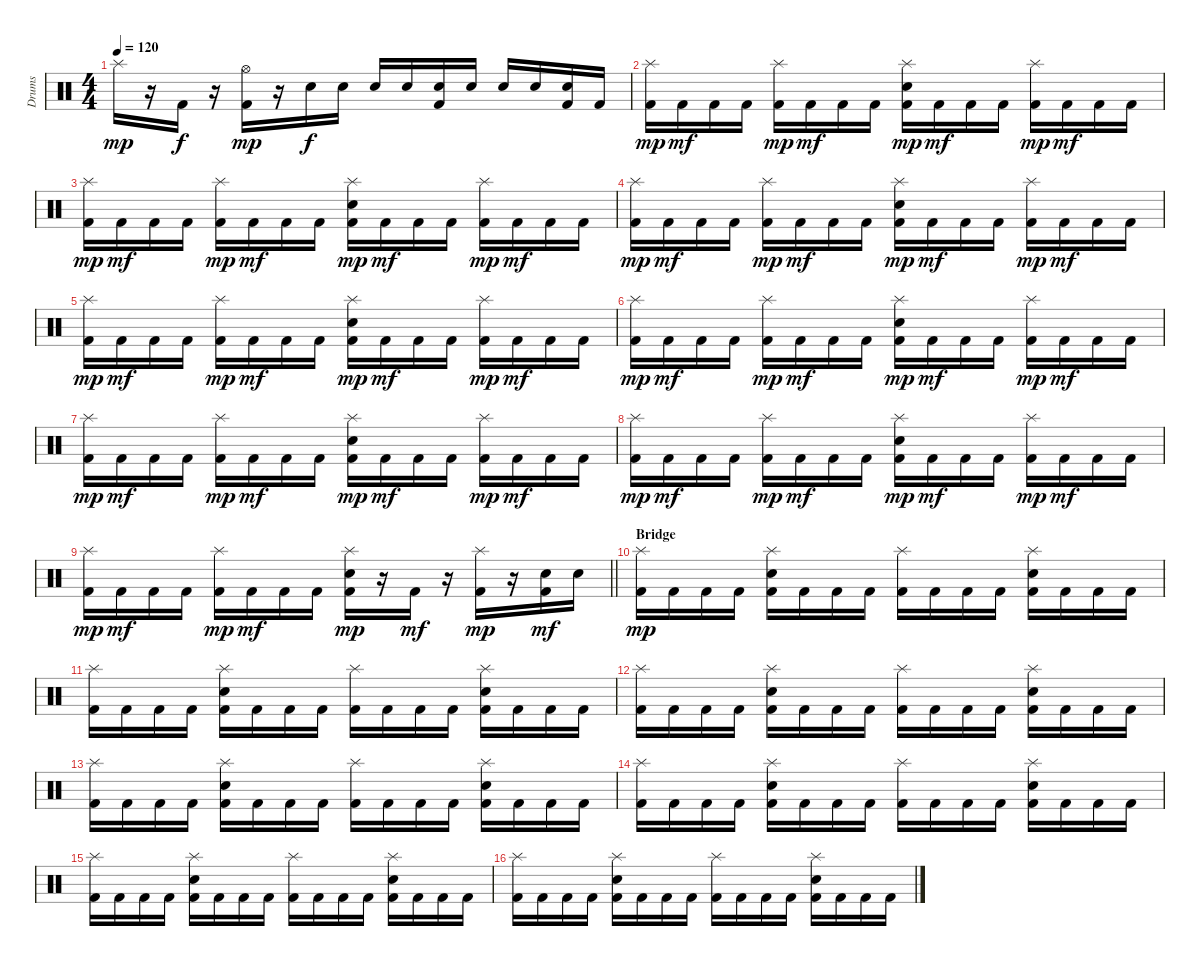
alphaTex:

\track ("Drums" "Drums") {instrument percussion}
\staff {score}
\articulation defaults
\ts (4 4)
\tempo 120
\clef neutral
\ks c "Splash (hit)".16{dy mp}
r.16 "Kick (hit) 2".16{dy f} r.16 ("Kick (hit) 2" "Hi-Hat (open)").16{dy mp} r.16 "Snare (hit) 2".16{dy f} "Snare (hit) 2".16 "Snare (hit) 2".16 "Snare (hit) 2".16 ("Kick (hit) 2" "Snare (hit) 2").16 "Snare (hit) 2".16 "Snare (hit) 2".16 "Snare (hit) 2".16 ("Kick (hit) 2" "Snare (hit) 2").16 "Kick (hit) 2".16 |
("Kick (hit) 2" "Splash (hit)").16{dy mp} "Kick (hit) 2".16{dy mf} "Kick (hit) 2".16 "Kick (hit) 2".16 ("Kick (hit) 2" "Splash (hit)").16{dy mp} "Kick (hit) 2".16{dy mf} "Kick (hit) 2".16 "Kick (hit) 2".16 ("Kick (hit) 2" "Splash (hit)" "Snare (hit) 2").16{dy mp} "Kick (hit) 2".16{dy mf} "Kick (hit) 2".16 "Kick (hit) 2".16 ("Kick (hit) 2" "Splash (hit)").16{dy mp} "Kick (hit) 2".16{dy mf} "Kick (hit) 2".16 "Kick (hit) 2".16 |
("Kick (hit) 2" "Splash (hit)").16{dy mp} "Kick (hit) 2".16{dy mf} "Kick (hit) 2".16 "Kick (hit) 2".16 ("Kick (hit) 2" "Splash (hit)").16{dy mp} "Kick (hit) 2".16{dy mf} "Kick (hit) 2".16 "Kick (hit) 2".16 ("Kick (hit) 2" "Splash (hit)" "Snare (hit) 2").16{dy mp} "Kick (hit) 2".16{dy mf} "Kick (hit) 2".16 "Kick (hit) 2".16 ("Kick (hit) 2" "Splash (hit)").16{dy mp} "Kick (hit) 2".16{dy mf} "Kick (hit) 2".16 "Kick (hit) 2".16 |
("Kick (hit) 2" "Splash (hit)").16{dy mp} "Kick (hit) 2".16{dy mf} "Kick (hit) 2".16 "Kick (hit) 2".16 ("Kick (hit) 2" "Splash (hit)").16{dy mp} "Kick (hit) 2".16{dy mf} "Kick (hit) 2".16 "Kick (hit) 2".16 ("Kick (hit) 2" "Splash (hit)" "Snare (hit) 2").16{dy mp} "Kick (hit) 2".16{dy mf} "Kick (hit) 2".16 "Kick (hit) 2".16 ("Kick (hit) 2" "Splash (hit)").16{dy mp} "Kick (hit) 2".16{dy mf} "Kick (hit) 2".16 "Kick (hit) 2".16 |
("Kick (hit) 2" "Splash (hit)").16{dy mp} "Kick (hit) 2".16{dy mf} "Kick (hit) 2".16 "Kick (hit) 2".16 ("Kick (hit) 2" "Splash (hit)").16{dy mp} "Kick (hit) 2".16{dy mf} "Kick (hit) 2".16 "Kick (hit) 2".16 ("Kick (hit) 2" "Splash (hit)" "Snare (hit) 2").16{dy mp} "Kick (hit) 2".16{dy mf} "Kick (hit) 2".16 "Kick (hit) 2".16 ("Kick (hit) 2" "Splash (hit)").16{dy mp} "Kick (hit) 2".16{dy mf} "Kick (hit) 2".16 "Kick (hit) 2".16 |
("Kick (hit) 2" "Splash (hit)").16{dy mp} "Kick (hit) 2".16{dy mf} "Kick (hit) 2".16 "Kick (hit) 2".16 ("Kick (hit) 2" "Splash (hit)").16{dy mp} "Kick (hit) 2".16{dy mf} "Kick (hit) 2".16 "Kick (hit) 2".16 ("Kick (hit) 2" "Splash (hit)" "Snare (hit) 2").16{dy mp} "Kick (hit) 2".16{dy mf} "Kick (hit) 2".16 "Kick (hit) 2".16 ("Kick (hit) 2" "Splash (hit)").16{dy mp} "Kick (hit) 2".16{dy mf} "Kick (hit) 2".16 "Kick (hit) 2".16 |
("Kick (hit) 2" "Splash (hit)").16{dy mp} "Kick (hit) 2".16{dy mf} "Kick (hit) 2".16 "Kick (hit) 2".16 ("Kick (hit) 2" "Splash (hit)").16{dy mp} "Kick (hit) 2".16{dy mf} "Kick (hit) 2".16 "Kick (hit) 2".16 ("Kick (hit) 2" "Splash (hit)" "Snare (hit) 2").16{dy mp} "Kick (hit) 2".16{dy mf} "Kick (hit) 2".16 "Kick (hit) 2".16 ("Kick (hit) 2" "Splash (hit)").16{dy mp} "Kick (hit) 2".16{dy mf} "Kick (hit) 2".16 "Kick (hit) 2".16 |
("Kick (hit) 2" "Splash (hit)").16{dy mp} "Kick (hit) 2".16{dy mf} "Kick (hit) 2".16 "Kick (hit) 2".16 ("Kick (hit) 2" "Splash (hit)").16{dy mp} "Kick (hit) 2".16{dy mf} "Kick (hit) 2".16 "Kick (hit) 2".16 ("Kick (hit) 2" "Splash (hit)" "Snare (hit) 2").16{dy mp} "Kick (hit) 2".16{dy mf} "Kick (hit) 2".16 "Kick (hit) 2".16 ("Kick (hit) 2" "Splash (hit)").16{dy mp} "Kick (hit) 2".16{dy mf} "Kick (hit) 2".16 "Kick (hit) 2".16 |
\barLineRight lightlight
("Kick (hit) 2" "Splash (hit)").16{dy mp} "Kick (hit) 2".16{dy mf} "Kick (hit) 2".16 "Kick (hit) 2".16 ("Kick (hit) 2" "Splash (hit)").16{dy mp} "Kick (hit) 2".16{dy mf} "Kick (hit) 2".16 "Kick (hit) 2".16 ("Kick (hit) 2" "Splash (hit)" "Snare (hit) 2").16{dy mp} r.16 "Kick (hit) 2".16{dy mf} r.16 ("Kick (hit) 2" "Splash (hit)").16{dy mp} r.16 ("Kick (hit) 2" "Snare (hit) 2").16{dy mf} "Snare (hit) 2".16 |
\section ("" "Bridge")
("Kick (hit) 2" "Splash (hit)").16{dy mp} "Kick (hit) 2".16 "Kick (hit) 2".16 "Kick (hit) 2".16 ("Kick (hit) 2" "Splash (hit)" "Snare (hit) 2").16 "Kick (hit) 2".16 "Kick (hit) 2".16 "Kick (hit) 2".16 ("Kick (hit) 2" "Splash (hit)").16 "Kick (hit) 2".16 "Kick (hit) 2".16 "Kick (hit) 2".16 ("Kick (hit) 2" "Splash (hit)" "Snare (hit) 2").16 "Kick (hit) 2".16 "Kick (hit) 2".16 "Kick (hit) 2".16 |
("Kick (hit) 2" "Splash (hit)").16 "Kick (hit) 2".16 "Kick (hit) 2".16 "Kick (hit) 2".16 ("Kick (hit) 2" "Splash (hit)" "Snare (hit) 2").16 "Kick (hit) 2".16 "Kick (hit) 2".16 "Kick (hit) 2".16 ("Kick (hit) 2" "Splash (hit)").16 "Kick (hit) 2".16 "Kick (hit) 2".16 "Kick (hit) 2".16 ("Kick (hit) 2" "Splash (hit)" "Snare (hit) 2").16 "Kick (hit) 2".16 "Kick (hit) 2".16 "Kick (hit) 2".16 |
("Kick (hit) 2" "Splash (hit)").16 "Kick (hit) 2".16 "Kick (hit) 2".16 "Kick (hit) 2".16 ("Kick (hit) 2" "Splash (hit)" "Snare (hit) 2").16 "Kick (hit) 2".16 "Kick (hit) 2".16 "Kick (hit) 2".16 ("Kick (hit) 2" "Splash (hit)").16 "Kick (hit) 2".16 "Kick (hit) 2".16 "Kick (hit) 2".16 ("Kick (hit) 2" "Splash (hit)" "Snare (hit) 2").16 "Kick (hit) 2".16 "Kick (hit) 2".16 "Kick (hit) 2".16 |
("Kick (hit) 2" "Splash (hit)").16 "Kick (hit) 2".16 "Kick (hit) 2".16 "Kick (hit) 2".16 ("Kick (hit) 2" "Splash (hit)" "Snare (hit) 2").16 "Kick (hit) 2".16 "Kick (hit) 2".16 "Kick (hit) 2".16 ("Kick (hit) 2" "Splash (hit)").16 "Kick (hit) 2".16 "Kick (hit) 2".16 "Kick (hit) 2".16 ("Kick (hit) 2" "Splash (hit)" "Snare (hit) 2").16 "Kick (hit) 2".16 "Kick (hit) 2".16 "Kick (hit) 2".16 |
("Kick (hit) 2" "Splash (hit)").16 "Kick (hit) 2".16 "Kick (hit) 2".16 "Kick (hit) 2".16 ("Kick (hit) 2" "Splash (hit)" "Snare (hit) 2").16 "Kick (hit) 2".16 "Kick (hit) 2".16 "Kick (hit) 2".16 ("Kick (hit) 2" "Splash (hit)").16 "Kick (hit) 2".16 "Kick (hit) 2".16 "Kick (hit) 2".16 ("Kick (hit) 2" "Splash (hit)" "Snare (hit) 2").16 "Kick (hit) 2".16 "Kick (hit) 2".16 "Kick (hit) 2".16 |
("Kick (hit) 2" "Splash (hit)").16 "Kick (hit) 2".16 "Kick (hit) 2".16 "Kick (hit) 2".16 ("Kick (hit) 2" "Splash (hit)" "Snare (hit) 2").16 "Kick (hit) 2".16 "Kick (hit) 2".16 "Kick (hit) 2".16 ("Kick (hit) 2" "Splash (hit)").16 "Kick (hit) 2".16 "Kick (hit) 2".16 "Kick (hit) 2".16 ("Kick (hit) 2" "Splash (hit)" "Snare (hit) 2").16 "Kick (hit) 2".16 "Kick (hit) 2".16 "Kick (hit) 2".16 |
("Kick (hit) 2" "Splash (hit)").16 "Kick (hit) 2".16 "Kick (hit) 2".16 "Kick (hit) 2".16 ("Kick (hit) 2" "Splash (hit)" "Snare (hit) 2").16 "Kick (hit) 2".16 "Kick (hit) 2".16 "Kick (hit) 2".16 ("Kick (hit) 2" "Splash (hit)").16 "Kick (hit) 2".16 "Kick (hit) 2".16 "Kick (hit) 2".16 ("Kick (hit) 2" "Splash (hit)" "Snare (hit) 2").16 "Kick (hit) 2".16 "Kick (hit) 2".16 "Kick (hit) 2".16
